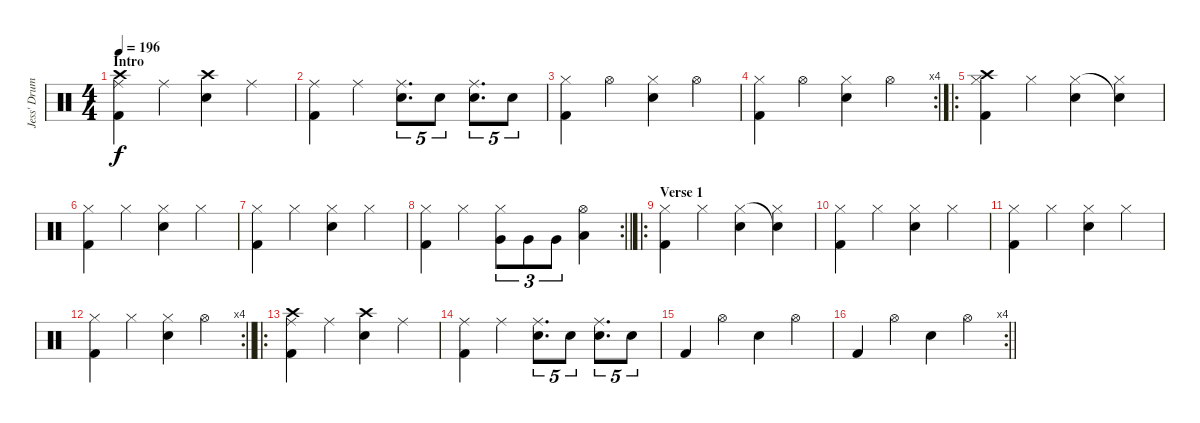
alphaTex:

\track ("Jess' Drums" "Jess' Drum") {instrument percussion}
\staff {score}
\articulation defaults
\ts (4 4)
\section ("" "Intro")
\tempo 196
\clef neutral
\ks c
("Crash high (hit)" "Ride (middle)" "Kick (hit) 2").4{dy f} "Ride (middle)".4 ("Crash high (hit)" "Snare (hit) 2").4 "Ride (middle)".4 |
("Ride (middle)" "Kick (hit) 2").4 "Ride (middle)".4 ("Ride (middle)" "Snare (hit) 2").8{d tu (5 4)} "Snare (hit) 2".8{tu (5 4)} ("Ride (middle)" "Snare (hit) 2").8{d tu (5 4)} "Snare (hit) 2".8{tu (5 4)} |
("Hi-Hat (closed)" "Kick (hit) 2").4 "Hi-Hat (open)".4 ("Hi-Hat (closed)" "Snare (hit) 2").4 "Hi-Hat (open)".4 |
\rc 4
("Hi-Hat (closed)" "Kick (hit) 2").4 "Hi-Hat (open)".4 ("Hi-Hat (closed)" "Snare (hit) 2").4 "Hi-Hat (open)".4 |
\ro
("Crash high (hit)" "Hi-Hat (closed)" "Kick (hit) 2").4 "Hi-Hat (closed)".4 ("Hi-Hat (closed)" "Snare (hit) 2").4 ("Snare (hit)"{t} "Hi-Hat (closed)").4 |
("Hi-Hat (closed)" "Kick (hit) 2").4 "Hi-Hat (closed)".4 ("Hi-Hat (closed)" "Snare (hit) 2").4 "Hi-Hat (closed)".4 |
("Hi-Hat (closed)" "Kick (hit) 2").4 "Hi-Hat (closed)".4 ("Hi-Hat (closed)" "Snare (hit) 2").4 "Hi-Hat (closed)".4 |
\rc 2
\barLineRight lightlight
("Hi-Hat (closed)" "Kick (hit) 2").4 "Hi-Hat (closed)".4 ("Hi-Hat (closed)" "Very Low Tom (hit)").8{tu (3 2)} "Very Low Tom (hit)".8{tu (3 2)} "Very Low Tom (hit)".8{tu (3 2)} ("Hi-Hat (open)" "Low Floor Tom (hit)").4 |
\ro
\section ("" "Verse 1")
("Hi-Hat (closed)" "Kick (hit) 2").4 "Hi-Hat (closed)".4 ("Hi-Hat (closed)" "Snare (hit) 2").4 ("Snare (hit)"{t} "Hi-Hat (closed)").4 |
("Hi-Hat (closed)" "Kick (hit) 2").4 "Hi-Hat (closed)".4 ("Hi-Hat (closed)" "Snare (hit) 2").4 "Hi-Hat (closed)".4 |
("Hi-Hat (closed)" "Kick (hit) 2").4 "Hi-Hat (closed)".4 ("Hi-Hat (closed)" "Snare (hit) 2").4 "Hi-Hat (closed)".4 |
\rc 4
\barLineRight lightlight
("Hi-Hat (closed)" "Kick (hit) 2").4 "Hi-Hat (closed)".4 ("Hi-Hat (closed)" "Snare (hit) 2").4 "Hi-Hat (open)".4 |
\ro
("Crash high (hit)" "Ride (middle)" "Kick (hit) 2").4 "Ride (middle)".4 ("Crash high (hit)" "Snare (hit) 2").4 "Ride (middle)".4 |
("Ride (middle)" "Kick (hit) 2").4 "Ride (middle)".4 ("Ride (middle)" "Snare (hit) 2").8{d tu (5 4)} "Snare (hit) 2".8{tu (5 4)} ("Ride (middle)" "Snare (hit) 2").8{d tu (5 4)} "Snare (hit) 2".8{tu (5 4)} |
"Kick (hit) 2".4 "Hi-Hat (open)".4 "Snare (hit) 2".4 "Hi-Hat (open)".4 |
\rc 4
\barLineRight lightlight "Kick (hit) 2".4 "Hi-Hat (open)".4 "Snare (hit) 2".4 "Hi-Hat (open)".4
